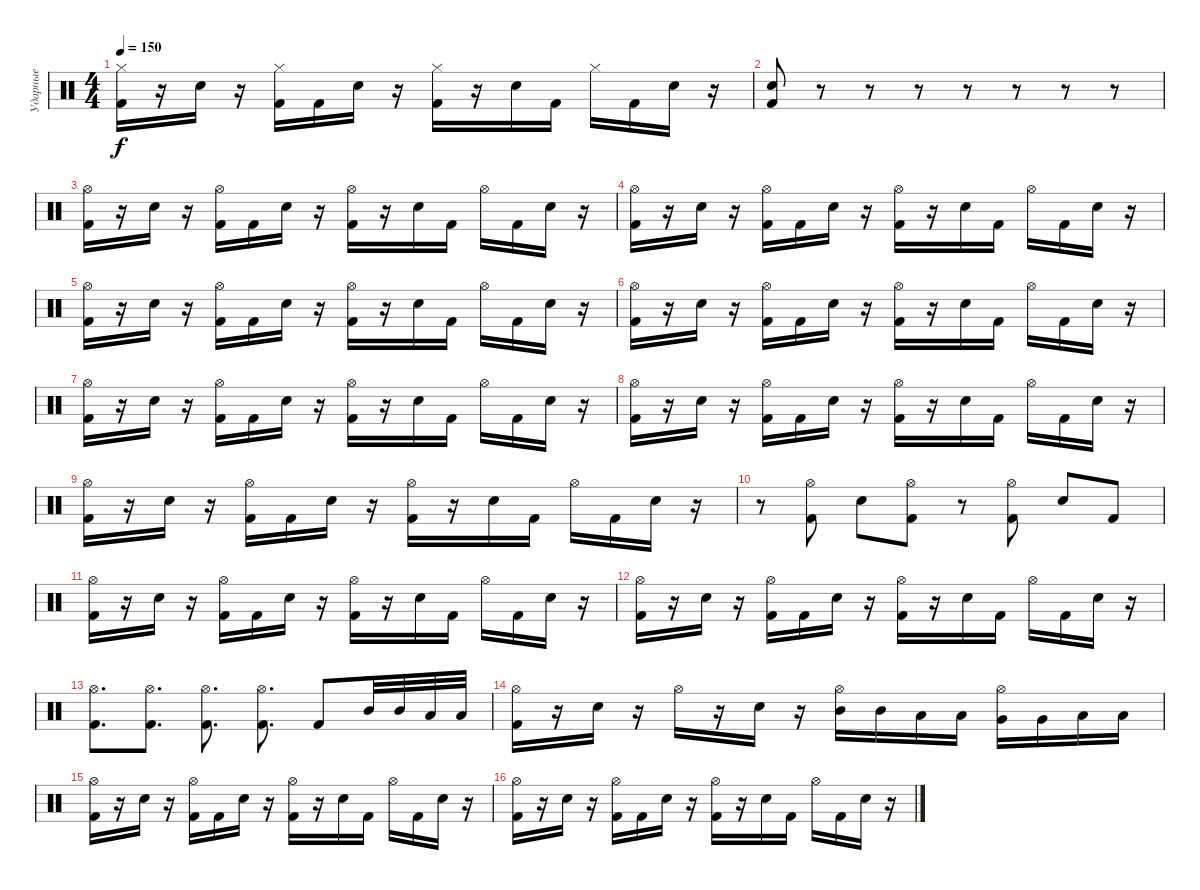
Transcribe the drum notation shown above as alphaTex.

\track ("Ударные" "Ударные") {instrument percussion}
\staff {score}
\articulation defaults
\ts (4 4)
\tempo 150
\clef neutral
\ks c
("Hi-Hat (closed)" "Kick (hit) 2").16{dy f} r.16 "Electric Snare (hit)".16 r.16 ("Hi-Hat (closed)" "Kick (hit) 2").16 "Kick (hit) 2".16 "Electric Snare (hit)".16 r.16 ("Hi-Hat (closed)" "Kick (hit) 2").16 r.16 "Electric Snare (hit)".16 "Kick (hit) 2".16 "Hi-Hat (closed)".16 "Kick (hit) 2".16 "Electric Snare (hit)".16 r.16 |
("Electric Snare (hit)" "Kick (hit) 2").8 r.8 r.8 r.8 r.8 r.8 r.8 r.8 |
("Hi-Hat (open)" "Kick (hit) 2").16 r.16 "Electric Snare (hit)".16 r.16 ("Hi-Hat (open)" "Kick (hit) 2").16 "Kick (hit) 2".16 "Electric Snare (hit)".16 r.16 ("Hi-Hat (open)" "Kick (hit) 2").16 r.16 "Electric Snare (hit)".16 "Kick (hit) 2".16 "Hi-Hat (open)".16 "Kick (hit) 2".16 "Electric Snare (hit)".16 r.16 |
("Hi-Hat (open)" "Kick (hit) 2").16 r.16 "Electric Snare (hit)".16 r.16 ("Hi-Hat (open)" "Kick (hit) 2").16 "Kick (hit) 2".16 "Electric Snare (hit)".16 r.16 ("Hi-Hat (open)" "Kick (hit) 2").16 r.16 "Electric Snare (hit)".16 "Kick (hit) 2".16 "Hi-Hat (open)".16 "Kick (hit) 2".16 "Electric Snare (hit)".16 r.16 |
("Hi-Hat (open)" "Kick (hit) 2").16 r.16 "Electric Snare (hit)".16 r.16 ("Hi-Hat (open)" "Kick (hit) 2").16 "Kick (hit) 2".16 "Electric Snare (hit)".16 r.16 ("Hi-Hat (open)" "Kick (hit) 2").16 r.16 "Electric Snare (hit)".16 "Kick (hit) 2".16 "Hi-Hat (open)".16 "Kick (hit) 2".16 "Electric Snare (hit)".16 r.16 |
("Hi-Hat (open)" "Kick (hit) 2").16 r.16 "Electric Snare (hit)".16 r.16 ("Hi-Hat (open)" "Kick (hit) 2").16 "Kick (hit) 2".16 "Electric Snare (hit)".16 r.16 ("Hi-Hat (open)" "Kick (hit) 2").16 r.16 "Electric Snare (hit)".16 "Kick (hit) 2".16 "Hi-Hat (open)".16 "Kick (hit) 2".16 "Electric Snare (hit)".16 r.16 |
("Hi-Hat (open)" "Kick (hit) 2").16 r.16 "Electric Snare (hit)".16 r.16 ("Hi-Hat (open)" "Kick (hit) 2").16 "Kick (hit) 2".16 "Electric Snare (hit)".16 r.16 ("Hi-Hat (open)" "Kick (hit) 2").16 r.16 "Electric Snare (hit)".16 "Kick (hit) 2".16 "Hi-Hat (open)".16 "Kick (hit) 2".16 "Electric Snare (hit)".16 r.16 |
("Hi-Hat (open)" "Kick (hit) 2").16 r.16 "Electric Snare (hit)".16 r.16 ("Hi-Hat (open)" "Kick (hit) 2").16 "Kick (hit) 2".16 "Electric Snare (hit)".16 r.16 ("Hi-Hat (open)" "Kick (hit) 2").16 r.16 "Electric Snare (hit)".16 "Kick (hit) 2".16 "Hi-Hat (open)".16 "Kick (hit) 2".16 "Electric Snare (hit)".16 r.16 |
("Hi-Hat (open)" "Kick (hit) 2").16 r.16 "Electric Snare (hit)".16 r.16 ("Hi-Hat (open)" "Kick (hit) 2").16 "Kick (hit) 2".16 "Electric Snare (hit)".16 r.16 ("Hi-Hat (open)" "Kick (hit) 2").16 r.16 "Electric Snare (hit)".16 "Kick (hit) 2".16 "Hi-Hat (open)".16 "Kick (hit) 2".16 "Electric Snare (hit)".16 r.16 |
r.8 ("Hi-Hat (open)" "Kick (hit) 2").8 "Electric Snare (hit)".8 ("Hi-Hat (open)" "Kick (hit) 2").8 r.8 ("Hi-Hat (open)" "Kick (hit) 2").8 "Electric Snare (hit)".8 "Kick (hit) 2".8 |
("Hi-Hat (open)" "Kick (hit) 2").16 r.16 "Electric Snare (hit)".16 r.16 ("Hi-Hat (open)" "Kick (hit) 2").16 "Kick (hit) 2".16 "Electric Snare (hit)".16 r.16 ("Hi-Hat (open)" "Kick (hit) 2").16 r.16 "Electric Snare (hit)".16 "Kick (hit) 2".16 "Hi-Hat (open)".16 "Kick (hit) 2".16 "Electric Snare (hit)".16 r.16 |
("Hi-Hat (open)" "Kick (hit) 2").16 r.16 "Electric Snare (hit)".16 r.16 ("Hi-Hat (open)" "Kick (hit) 2").16 "Kick (hit) 2".16 "Electric Snare (hit)".16 r.16 ("Hi-Hat (open)" "Kick (hit) 2").16 r.16 "Electric Snare (hit)".16 "Kick (hit) 2".16 "Hi-Hat (open)".16 "Kick (hit) 2".16 "Electric Snare (hit)".16 r.16 |
("Hi-Hat (open)" "Kick (hit) 2").8{d} ("Hi-Hat (open)" "Kick (hit) 2").8{d} ("Hi-Hat (open)" "Kick (hit) 2").8{d} ("Hi-Hat (open)" "Kick (hit) 2").8{d} "Kick (hit) 2".8 "Mid Tom (hit)".32 "Mid Tom (hit)".32 "Low Tom (hit)".32 "Low Tom (hit)".32 |
("Hi-Hat (open)" "Kick (hit) 2").16 r.16 "Electric Snare (hit)".16 r.16 "Hi-Hat (open)".16 r.16 "Electric Snare (hit)".16 r.16 ("Hi-Hat (open)" "Mid Tom (hit)").16 "Mid Tom (hit)".16 "Low Tom (hit)".16 "Low Tom (hit)".16 ("Hi-Hat (open)" "Very Low Tom (hit)").16 "Very Low Tom (hit)".16 "Low Floor Tom (hit)".16 "Low Floor Tom (hit)".16 |
("Hi-Hat (open)" "Kick (hit) 2").16 r.16 "Electric Snare (hit)".16 r.16 ("Hi-Hat (open)" "Kick (hit) 2").16 "Kick (hit) 2".16 "Electric Snare (hit)".16 r.16 ("Hi-Hat (open)" "Kick (hit) 2").16 r.16 "Electric Snare (hit)".16 "Kick (hit) 2".16 "Hi-Hat (open)".16 "Kick (hit) 2".16 "Electric Snare (hit)".16 r.16 |
("Hi-Hat (open)" "Kick (hit) 2").16 r.16 "Electric Snare (hit)".16 r.16 ("Hi-Hat (open)" "Kick (hit) 2").16 "Kick (hit) 2".16 "Electric Snare (hit)".16 r.16 ("Hi-Hat (open)" "Kick (hit) 2").16 r.16 "Electric Snare (hit)".16 "Kick (hit) 2".16 "Hi-Hat (open)".16 "Kick (hit) 2".16 "Electric Snare (hit)".16 r.16
